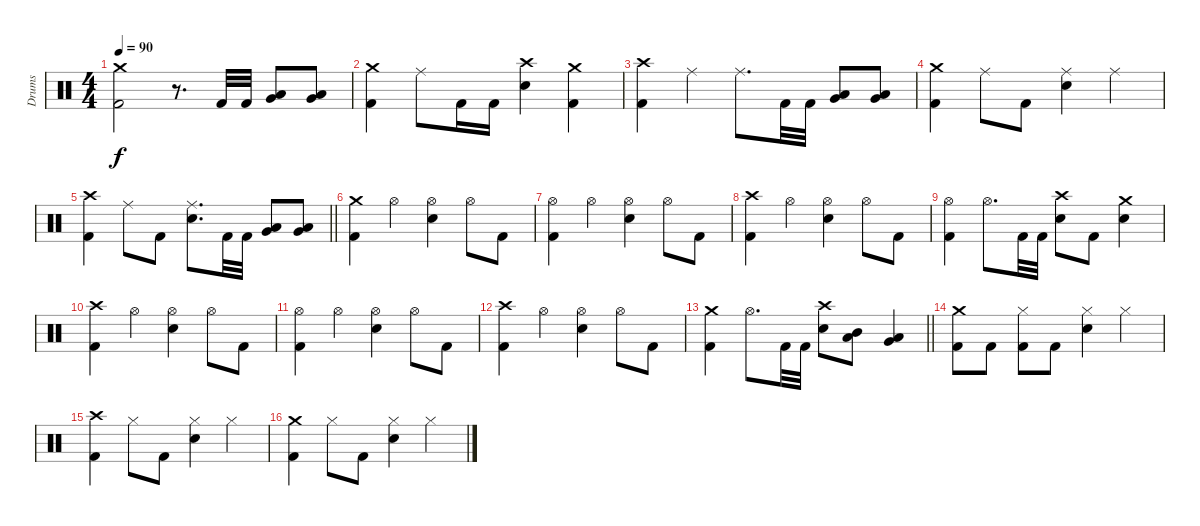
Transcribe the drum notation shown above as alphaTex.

\track ("Drums" "Drums") {instrument percussion}
\staff {score}
\articulation defaults
\ts (4 4)
\tempo 90
\clef neutral
\ks c
("Crash medium (hit)" "Kick (hit) 2").2{dy f} r.8{d} "Kick (hit) 2".32 "Kick (hit) 2".32 ("Low Tom (hit)" "Very Low Tom (hit)").8 ("Low Tom (hit)" "Very Low Tom (hit)").8 |
("Crash medium (hit)" "Kick (hit) 2").4 "Ride (middle)".8 "Kick (hit) 2".16 "Kick (hit) 2".16 ("Crash high (hit)" "Snare (hit) 2").4 ("Crash medium (hit)" "Kick (hit) 2").4 |
("Crash high (hit)" "Kick (hit) 2").4 "Ride (middle)".4 "Ride (middle)".8{d} "Kick (hit) 2".32 "Kick (hit) 2".32 ("Low Tom (hit)" "Very Low Tom (hit)").8 ("Low Tom (hit)" "Very Low Tom (hit)").8 |
("Crash medium (hit)" "Kick (hit) 2").4 "Ride (middle)".8 "Kick (hit) 2".8 ("Ride (middle)" "Snare (hit) 2").4 "Ride (middle)".4 |
\barLineRight lightlight
("Crash high (hit)" "Kick (hit) 2").4 "Ride (middle)".8 "Kick (hit) 2".8 ("Ride (middle)" "Snare (hit) 2").8{d} "Kick (hit) 2".32 "Kick (hit) 2".32 ("Low Tom (hit)" "Very Low Tom (hit)").8 ("Low Tom (hit)" "Very Low Tom (hit)").8 |
("Crash medium (hit)" "Kick (hit) 2").4 "Hi-Hat (open)".4 ("Hi-Hat (open)" "Snare (hit) 2").4 "Hi-Hat (open)".8 "Kick (hit) 2".8 |
("Hi-Hat (open)" "Kick (hit) 2").4 "Hi-Hat (open)".4 ("Hi-Hat (open)" "Snare (hit) 2").4 "Hi-Hat (open)".8 "Kick (hit) 2".8 |
("Crash high (hit)" "Kick (hit) 2").4 "Hi-Hat (open)".4 ("Hi-Hat (open)" "Snare (hit) 2").4 "Hi-Hat (open)".8 "Kick (hit) 2".8 |
("Hi-Hat (open)" "Kick (hit) 2").4 "Hi-Hat (open)".8{d} "Kick (hit) 2".32 "Kick (hit) 2".32 ("Crash high (hit)" "Snare (hit) 2").8 "Kick (hit) 2".8 ("Crash medium (hit)" "Snare (hit) 2").4 |
("Crash high (hit)" "Kick (hit) 2").4 "Hi-Hat (open)".4 ("Hi-Hat (open)" "Snare (hit) 2").4 "Hi-Hat (open)".8 "Kick (hit) 2".8 |
("Hi-Hat (open)" "Kick (hit) 2").4 "Hi-Hat (open)".4 ("Hi-Hat (open)" "Snare (hit) 2").4 "Hi-Hat (open)".8 "Kick (hit) 2".8 |
("Crash high (hit)" "Kick (hit) 2").4 "Hi-Hat (open)".4 ("Hi-Hat (open)" "Snare (hit) 2").4 "Hi-Hat (open)".8 "Kick (hit) 2".8 |
\barLineRight lightlight
("Crash medium (hit)" "Kick (hit) 2").4 "Hi-Hat (open)".8{d} "Kick (hit) 2".32 "Kick (hit) 2".32 ("Crash high (hit)" "Snare (hit) 2").8 ("Mid Tom (hit)" "Low Tom (hit)").8 ("Low Tom (hit)" "Very Low Tom (hit)").4 |
("Crash medium (hit)" "Kick (hit) 2").8 "Kick (hit) 2".8 ("Hi-Hat (closed)" "Kick (hit) 2").8 "Kick (hit) 2".8 ("Hi-Hat (closed)" "Snare (hit) 2").4 "Hi-Hat (closed)".4 |
("Crash high (hit)" "Kick (hit) 2").4 "Hi-Hat (closed)".8 "Kick (hit) 2".8 ("Hi-Hat (closed)" "Snare (hit) 2").4 "Hi-Hat (closed)".4 |
("Crash medium (hit)" "Kick (hit) 2").4 "Hi-Hat (closed)".8 "Kick (hit) 2".8 ("Hi-Hat (closed)" "Snare (hit) 2").4 "Hi-Hat (closed)".4
